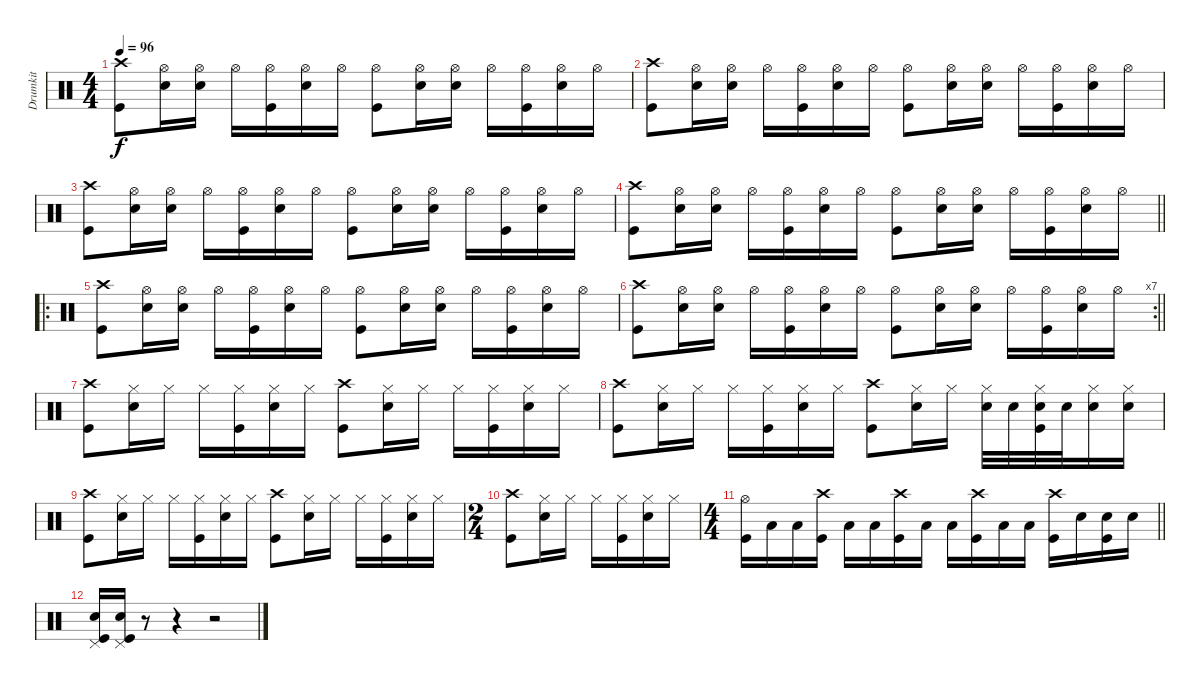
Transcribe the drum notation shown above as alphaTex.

\track ("Drumkit" "Drumkit") {instrument percussion}
\staff {score}
\articulation defaults
\ts (4 4)
\tempo 96
\clef neutral
\ks c
("Crash high (hit)" "Kick (hit)").8{dy f} ("Hi-Hat (open)" "Snare (hit) 2").16 ("Hi-Hat (open)" "Snare (hit) 2").16 "Hi-Hat (open)".16 ("Hi-Hat (open)" "Kick (hit)").16 ("Hi-Hat (open)" "Snare (hit) 2").16 "Hi-Hat (open)".16 ("Hi-Hat (open)" "Kick (hit)").8 ("Hi-Hat (open)" "Snare (hit) 2").16 ("Hi-Hat (open)" "Snare (hit) 2").16 "Hi-Hat (open)".16 ("Hi-Hat (open)" "Kick (hit)").16 ("Hi-Hat (open)" "Snare (hit) 2").16 "Hi-Hat (open)".16 |
("Crash high (hit)" "Kick (hit)").8 ("Hi-Hat (open)" "Snare (hit) 2").16 ("Hi-Hat (open)" "Snare (hit) 2").16 "Hi-Hat (open)".16 ("Hi-Hat (open)" "Kick (hit)").16 ("Hi-Hat (open)" "Snare (hit) 2").16 "Hi-Hat (open)".16 ("Hi-Hat (open)" "Kick (hit)").8 ("Hi-Hat (open)" "Snare (hit) 2").16 ("Hi-Hat (open)" "Snare (hit) 2").16 "Hi-Hat (open)".16 ("Hi-Hat (open)" "Kick (hit)").16 ("Hi-Hat (open)" "Snare (hit) 2").16 "Hi-Hat (open)".16 |
("Crash high (hit)" "Kick (hit)").8 ("Hi-Hat (open)" "Snare (hit) 2").16 ("Hi-Hat (open)" "Snare (hit) 2").16 "Hi-Hat (open)".16 ("Hi-Hat (open)" "Kick (hit)").16 ("Hi-Hat (open)" "Snare (hit) 2").16 "Hi-Hat (open)".16 ("Hi-Hat (open)" "Kick (hit)").8 ("Hi-Hat (open)" "Snare (hit) 2").16 ("Hi-Hat (open)" "Snare (hit) 2").16 "Hi-Hat (open)".16 ("Hi-Hat (open)" "Kick (hit)").16 ("Hi-Hat (open)" "Snare (hit) 2").16 "Hi-Hat (open)".16 |
\barLineRight lightlight
("Crash high (hit)" "Kick (hit)").8 ("Hi-Hat (open)" "Snare (hit) 2").16 ("Hi-Hat (open)" "Snare (hit) 2").16 "Hi-Hat (open)".16 ("Hi-Hat (open)" "Kick (hit)").16 ("Hi-Hat (open)" "Snare (hit) 2").16 "Hi-Hat (open)".16 ("Hi-Hat (open)" "Kick (hit)").8 ("Hi-Hat (open)" "Snare (hit) 2").16 ("Hi-Hat (open)" "Snare (hit) 2").16 "Hi-Hat (open)".16 ("Hi-Hat (open)" "Kick (hit)").16 ("Hi-Hat (open)" "Snare (hit) 2").16 "Hi-Hat (open)".16 |
\ro
("Crash high (hit)" "Kick (hit)").8 ("Hi-Hat (open)" "Snare (hit) 2").16 ("Hi-Hat (open)" "Snare (hit) 2").16 "Hi-Hat (open)".16 ("Hi-Hat (open)" "Kick (hit)").16 ("Hi-Hat (open)" "Snare (hit) 2").16 "Hi-Hat (open)".16 ("Hi-Hat (open)" "Kick (hit)").8 ("Hi-Hat (open)" "Snare (hit) 2").16 ("Hi-Hat (open)" "Snare (hit) 2").16 "Hi-Hat (open)".16 ("Hi-Hat (open)" "Kick (hit)").16 ("Hi-Hat (open)" "Snare (hit) 2").16 "Hi-Hat (open)".16 |
\rc 7
\barLineRight lightlight
("Crash high (hit)" "Kick (hit)").8 ("Hi-Hat (open)" "Snare (hit) 2").16 ("Hi-Hat (open)" "Snare (hit) 2").16 "Hi-Hat (open)".16 ("Hi-Hat (open)" "Kick (hit)").16 ("Hi-Hat (open)" "Snare (hit) 2").16 "Hi-Hat (open)".16 ("Hi-Hat (open)" "Kick (hit)").8 ("Hi-Hat (open)" "Snare (hit) 2").16 ("Hi-Hat (open)" "Snare (hit) 2").16 "Hi-Hat (open)".16 ("Hi-Hat (open)" "Kick (hit)").16 ("Hi-Hat (open)" "Snare (hit) 2").16 "Hi-Hat (open)".16 |
("Crash high (hit)" "Kick (hit)").8 ("Hi-Hat (closed)" "Snare (hit) 2").16 "Hi-Hat (closed)".16 "Hi-Hat (closed)".16 ("Hi-Hat (closed)" "Kick (hit)").16 ("Hi-Hat (closed)" "Snare (hit) 2").16 "Hi-Hat (closed)".16 ("Crash high (hit)" "Kick (hit)").8 ("Hi-Hat (closed)" "Snare (hit) 2").16 "Hi-Hat (closed)".16 "Hi-Hat (closed)".16 ("Hi-Hat (closed)" "Kick (hit)").16 ("Hi-Hat (closed)" "Snare (hit) 2").16 "Hi-Hat (closed)".16 |
("Crash high (hit)" "Kick (hit)").8 ("Hi-Hat (closed)" "Snare (hit) 2").16 "Hi-Hat (closed)".16 "Hi-Hat (closed)".16 ("Hi-Hat (closed)" "Kick (hit)").16 ("Hi-Hat (closed)" "Snare (hit) 2").16 "Hi-Hat (closed)".16 ("Crash high (hit)" "Kick (hit)").8 ("Hi-Hat (closed)" "Snare (hit) 2").16 "Hi-Hat (closed)".16 ("Hi-Hat (closed)" "Snare (hit) 2").32 "Snare (hit) 2".32 ("Hi-Hat (closed)" "Snare (hit) 2" "Kick (hit)").32 "Snare (hit) 2".32 ("Hi-Hat (closed)" "Snare (hit) 2").16 ("Hi-Hat (closed)" "Snare (hit) 2").16 |
("Crash high (hit)" "Kick (hit)").8 ("Hi-Hat (closed)" "Snare (hit) 2").16 "Hi-Hat (closed)".16 "Hi-Hat (closed)".16 ("Hi-Hat (closed)" "Kick (hit)").16 ("Hi-Hat (closed)" "Snare (hit) 2").16 "Hi-Hat (closed)".16 ("Crash high (hit)" "Kick (hit)").8 ("Hi-Hat (closed)" "Snare (hit) 2").16 "Hi-Hat (closed)".16 "Hi-Hat (closed)".16 ("Hi-Hat (closed)" "Kick (hit)").16 ("Hi-Hat (closed)" "Snare (hit) 2").16 "Hi-Hat (closed)".16 |
\ts (2 4)
("Crash high (hit)" "Kick (hit)").8 ("Hi-Hat (closed)" "Snare (hit) 2").16 "Hi-Hat (closed)".16 "Hi-Hat (closed)".16 ("Hi-Hat (closed)" "Kick (hit)").16 ("Hi-Hat (closed)" "Snare (hit) 2").16 "Hi-Hat (closed)".16 |
\ts (4 4)
\barLineRight lightlight
("Hi-Hat (open)" "Kick (hit)").16 "Low Tom (hit)".16 "Low Tom (hit)".16 ("Crash high (hit)" "Kick (hit)").16 "Low Tom (hit)".16 "Low Tom (hit)".16 ("Crash high (hit)" "Kick (hit)").16 "Low Tom (hit)".16 "Low Tom (hit)".16 ("Crash high (hit)" "Kick (hit)").16 "Low Tom (hit)".16 "Low Tom (hit)".16 ("Crash high (hit)" "Kick (hit)").16 "Snare (hit) 2".16 ("Snare (hit) 2" "Kick (hit)").16 "Snare (hit) 2".16 |
("Pedal Hi-Hat (hit)" "Snare (hit) 2" "Kick (hit)").16 ("Pedal Hi-Hat (hit)" "Snare (hit) 2" "Kick (hit)").16 r.8 r.4 r.2
